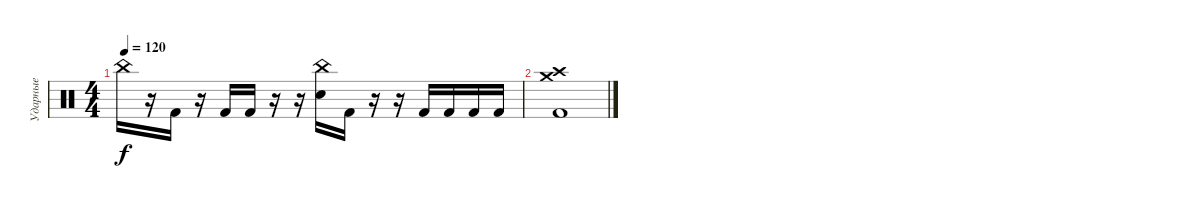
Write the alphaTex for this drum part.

\track ("Ударные" "Ударные") {instrument percussion}
\staff {score}
\articulation defaults
\ts (4 4)
\tempo 120
\clef neutral
\ks c "China (hit)".16{dy f}
r.16 "Kick (hit) 2".16 r.16 "Kick (hit) 2".16 "Kick (hit) 2".16 r.16 r.16 ("China (hit)" "Electric Snare (hit)").16 "Kick (hit) 2".16 r.16 r.16 "Kick (hit) 2".16 "Kick (hit) 2".16 "Kick (hit) 2".16 "Kick (hit) 2".16 |
("Crash high (hit)" "Crash medium (hit)" "Kick (hit) 2").1
